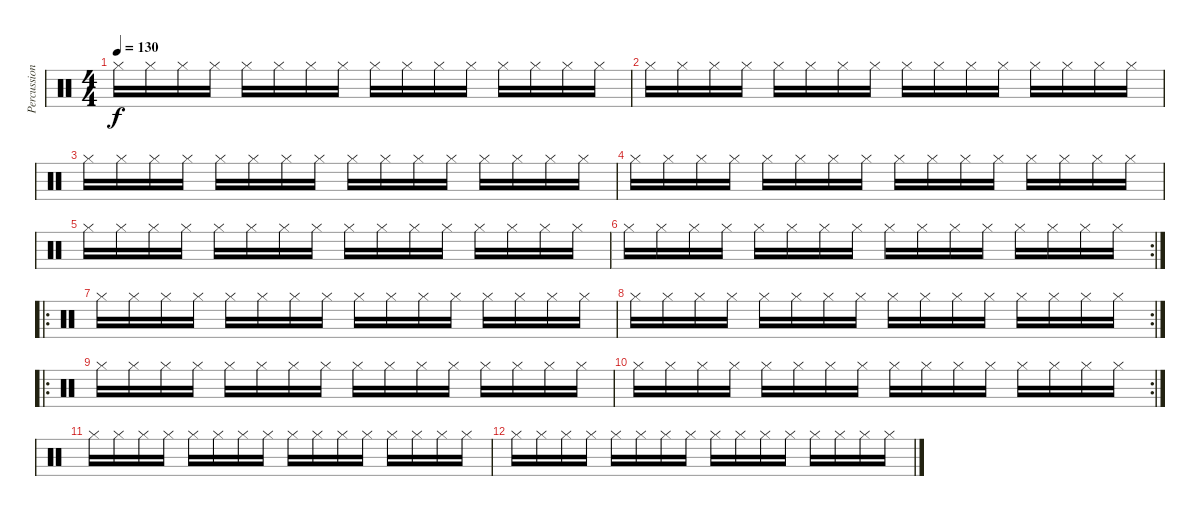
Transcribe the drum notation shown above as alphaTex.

\track ("Percussion" "Percussion") {instrument percussion}
\staff {score}
\articulation defaults
\ts (4 4)
\tempo 130
\clef neutral
\ks c "Hi-Hat (closed)".16{dy f} "Hi-Hat (closed)".16 "Hi-Hat (closed)".16 "Hi-Hat (closed)".16 "Hi-Hat (closed)".16 "Hi-Hat (closed)".16 "Hi-Hat (closed)".16 "Hi-Hat (closed)".16 "Hi-Hat (closed)".16 "Hi-Hat (closed)".16 "Hi-Hat (closed)".16 "Hi-Hat (closed)".16 "Hi-Hat (closed)".16 "Hi-Hat (closed)".16 "Hi-Hat (closed)".16 "Hi-Hat (closed)".16
|
"Hi-Hat (closed)".16 "Hi-Hat (closed)".16 "Hi-Hat (closed)".16 "Hi-Hat (closed)".16 "Hi-Hat (closed)".16 "Hi-Hat (closed)".16 "Hi-Hat (closed)".16 "Hi-Hat (closed)".16 "Hi-Hat (closed)".16 "Hi-Hat (closed)".16 "Hi-Hat (closed)".16 "Hi-Hat (closed)".16 "Hi-Hat (closed)".16 "Hi-Hat (closed)".16 "Hi-Hat (closed)".16 "Hi-Hat (closed)".16 |
"Hi-Hat (closed)".16 "Hi-Hat (closed)".16 "Hi-Hat (closed)".16 "Hi-Hat (closed)".16 "Hi-Hat (closed)".16 "Hi-Hat (closed)".16 "Hi-Hat (closed)".16 "Hi-Hat (closed)".16 "Hi-Hat (closed)".16 "Hi-Hat (closed)".16 "Hi-Hat (closed)".16 "Hi-Hat (closed)".16 "Hi-Hat (closed)".16 "Hi-Hat (closed)".16 "Hi-Hat (closed)".16 "Hi-Hat (closed)".16 |
"Hi-Hat (closed)".16 "Hi-Hat (closed)".16 "Hi-Hat (closed)".16 "Hi-Hat (closed)".16 "Hi-Hat (closed)".16 "Hi-Hat (closed)".16 "Hi-Hat (closed)".16 "Hi-Hat (closed)".16 "Hi-Hat (closed)".16 "Hi-Hat (closed)".16 "Hi-Hat (closed)".16 "Hi-Hat (closed)".16 "Hi-Hat (closed)".16 "Hi-Hat (closed)".16 "Hi-Hat (closed)".16 "Hi-Hat (closed)".16 |
"Hi-Hat (closed)".16 "Hi-Hat (closed)".16 "Hi-Hat (closed)".16 "Hi-Hat (closed)".16 "Hi-Hat (closed)".16 "Hi-Hat (closed)".16 "Hi-Hat (closed)".16 "Hi-Hat (closed)".16 "Hi-Hat (closed)".16 "Hi-Hat (closed)".16 "Hi-Hat (closed)".16 "Hi-Hat (closed)".16 "Hi-Hat (closed)".16 "Hi-Hat (closed)".16 "Hi-Hat (closed)".16 "Hi-Hat (closed)".16 |
\rc 2 "Hi-Hat (closed)".16 "Hi-Hat (closed)".16 "Hi-Hat (closed)".16 "Hi-Hat (closed)".16 "Hi-Hat (closed)".16 "Hi-Hat (closed)".16 "Hi-Hat (closed)".16 "Hi-Hat (closed)".16 "Hi-Hat (closed)".16 "Hi-Hat (closed)".16 "Hi-Hat (closed)".16 "Hi-Hat (closed)".16 "Hi-Hat (closed)".16 "Hi-Hat (closed)".16 "Hi-Hat (closed)".16 "Hi-Hat (closed)".16
|
\ro "Hi-Hat (closed)".16 "Hi-Hat (closed)".16 "Hi-Hat (closed)".16 "Hi-Hat (closed)".16 "Hi-Hat (closed)".16 "Hi-Hat (closed)".16 "Hi-Hat (closed)".16 "Hi-Hat (closed)".16 "Hi-Hat (closed)".16 "Hi-Hat (closed)".16 "Hi-Hat (closed)".16 "Hi-Hat (closed)".16 "Hi-Hat (closed)".16 "Hi-Hat (closed)".16 "Hi-Hat (closed)".16 "Hi-Hat (closed)".16
|
\rc 2 "Hi-Hat (closed)".16 "Hi-Hat (closed)".16 "Hi-Hat (closed)".16 "Hi-Hat (closed)".16 "Hi-Hat (closed)".16 "Hi-Hat (closed)".16 "Hi-Hat (closed)".16 "Hi-Hat (closed)".16 "Hi-Hat (closed)".16 "Hi-Hat (closed)".16 "Hi-Hat (closed)".16 "Hi-Hat (closed)".16 "Hi-Hat (closed)".16 "Hi-Hat (closed)".16 "Hi-Hat (closed)".16 "Hi-Hat (closed)".16
|
\ro "Hi-Hat (closed)".16 "Hi-Hat (closed)".16 "Hi-Hat (closed)".16 "Hi-Hat (closed)".16 "Hi-Hat (closed)".16 "Hi-Hat (closed)".16 "Hi-Hat (closed)".16 "Hi-Hat (closed)".16 "Hi-Hat (closed)".16 "Hi-Hat (closed)".16 "Hi-Hat (closed)".16 "Hi-Hat (closed)".16 "Hi-Hat (closed)".16 "Hi-Hat (closed)".16 "Hi-Hat (closed)".16 "Hi-Hat (closed)".16
|
\rc 2 "Hi-Hat (closed)".16 "Hi-Hat (closed)".16 "Hi-Hat (closed)".16 "Hi-Hat (closed)".16 "Hi-Hat (closed)".16 "Hi-Hat (closed)".16 "Hi-Hat (closed)".16 "Hi-Hat (closed)".16 "Hi-Hat (closed)".16 "Hi-Hat (closed)".16 "Hi-Hat (closed)".16 "Hi-Hat (closed)".16 "Hi-Hat (closed)".16 "Hi-Hat (closed)".16 "Hi-Hat (closed)".16 "Hi-Hat (closed)".16
|
"Hi-Hat (closed)".16 "Hi-Hat (closed)".16 "Hi-Hat (closed)".16 "Hi-Hat (closed)".16 "Hi-Hat (closed)".16 "Hi-Hat (closed)".16 "Hi-Hat (closed)".16 "Hi-Hat (closed)".16 "Hi-Hat (closed)".16 "Hi-Hat (closed)".16 "Hi-Hat (closed)".16 "Hi-Hat (closed)".16 "Hi-Hat (closed)".16 "Hi-Hat (closed)".16 "Hi-Hat (closed)".16 "Hi-Hat (closed)".16 |
"Hi-Hat (closed)".16 "Hi-Hat (closed)".16 "Hi-Hat (closed)".16 "Hi-Hat (closed)".16 "Hi-Hat (closed)".16 "Hi-Hat (closed)".16 "Hi-Hat (closed)".16 "Hi-Hat (closed)".16 "Hi-Hat (closed)".16 "Hi-Hat (closed)".16 "Hi-Hat (closed)".16 "Hi-Hat (closed)".16 "Hi-Hat (closed)".16 "Hi-Hat (closed)".16 "Hi-Hat (closed)".16 "Hi-Hat (closed)".16
